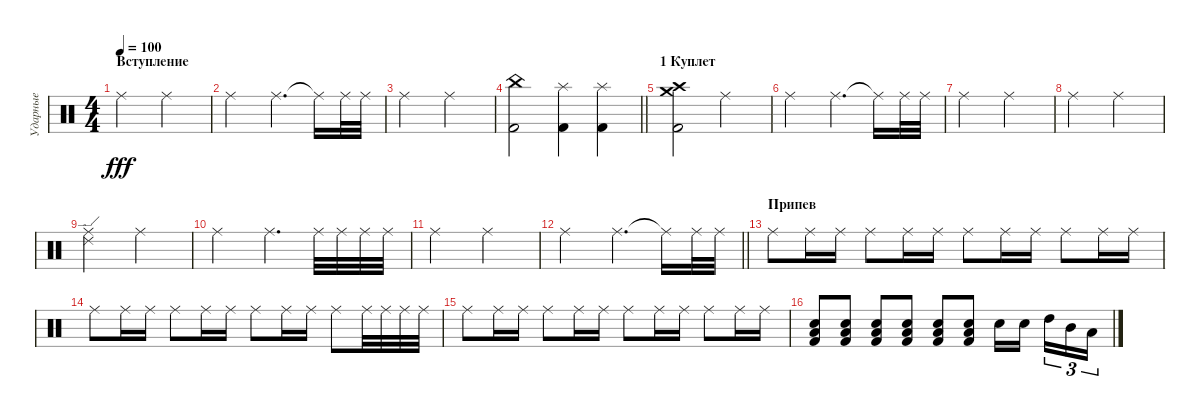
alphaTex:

\track ("Ударные" "Ударные") {instrument percussion}
\staff {score}
\articulation defaults
\ts (4 4)
\section ("" "Вступление")
\tempo 100
\tempo 94
\tempo 100
\clef neutral
\ks c "Ride (middle)".2{dy fff} "Ride (middle)".2
|
"Ride (middle)".2 "Ride (middle)".4{d} "Ride (middle)"{t}.16 "Ride (middle)".32 "Ride (middle)".32 |
"Ride (middle)".2 "Ride (middle)".2 |
\barLineRight lightlight
("China (hit)" "Kick (hit) 2").2 ("Splash (hit)" "Kick (hit) 2").4 ("Splash (hit)" "Kick (hit) 2").4 |
\section ("" "1 Куплет")
("Crash medium (hit)" "Crash high (hit)" "Kick (hit) 2").2 "Ride (middle)".2 |
"Ride (middle)".2 "Ride (middle)".4{d} "Ride (middle)"{t}.16 "Ride (middle)".32 "Ride (middle)".32 |
"Ride (middle)".2 "Ride (middle)".2 |
"Ride (middle)".2 "Ride (middle)".2 |
("Ride (middle)" "Ride (edge) 2").2 "Ride (middle)".2 |
"Ride (middle)".2 "Ride (middle)".4{d} "Ride (middle)".32 "Ride (middle)".32 "Ride (middle)".32 "Ride (middle)".32 |
"Ride (middle)".2 "Ride (middle)".2 |
\barLineRight lightlight "Ride (middle)".2 "Ride (middle)".4{d} "Ride (middle)"{t}.16 "Ride (middle)".32 "Ride (middle)".32
|
\section ("" "Припев")
"Ride (middle)".8 "Ride (middle)".16 "Ride (middle)".16 "Ride (middle)".8 "Ride (middle)".16 "Ride (middle)".16 "Ride (middle)".8 "Ride (middle)".16 "Ride (middle)".16 "Ride (middle)".8 "Ride (middle)".16 "Ride (middle)".16 |
"Ride (middle)".8 "Ride (middle)".16 "Ride (middle)".16 "Ride (middle)".8 "Ride (middle)".16 "Ride (middle)".16 "Ride (middle)".8 "Ride (middle)".16 "Ride (middle)".16 "Ride (middle)".8 "Ride (middle)".32 "Ride (middle)".32 "Ride (middle)".32 "Ride (middle)".32 |
"Ride (middle)".8 "Ride (middle)".16 "Ride (middle)".16 "Ride (middle)".8 "Ride (middle)".16 "Ride (middle)".16 "Ride (middle)".8 "Ride (middle)".16 "Ride (middle)".16 "Ride (middle)".8 "Ride (middle)".16 "Ride (middle)".16 |
("Low Tom (hit)" "Electric Snare (hit)" "Kick (hit) 2").8 ("Low Tom (hit)" "Electric Snare (hit)" "Kick (hit) 2").8 ("Low Tom (hit)" "Electric Snare (hit)" "Kick (hit) 2").8 ("Low Tom (hit)" "Electric Snare (hit)" "Kick (hit) 2").8 ("Low Tom (hit)" "Electric Snare (hit)" "Kick (hit) 2").8 ("Low Tom (hit)" "Electric Snare (hit)" "Kick (hit) 2").8 "Electric Snare (hit)".16 "Electric Snare (hit)".16{beam splitsecondary} "High Tom (hit)".16{tu (3 2)} "Mid Tom (hit)".16{tu (3 2)} "Low Tom (hit)".16{tu (3 2)}
